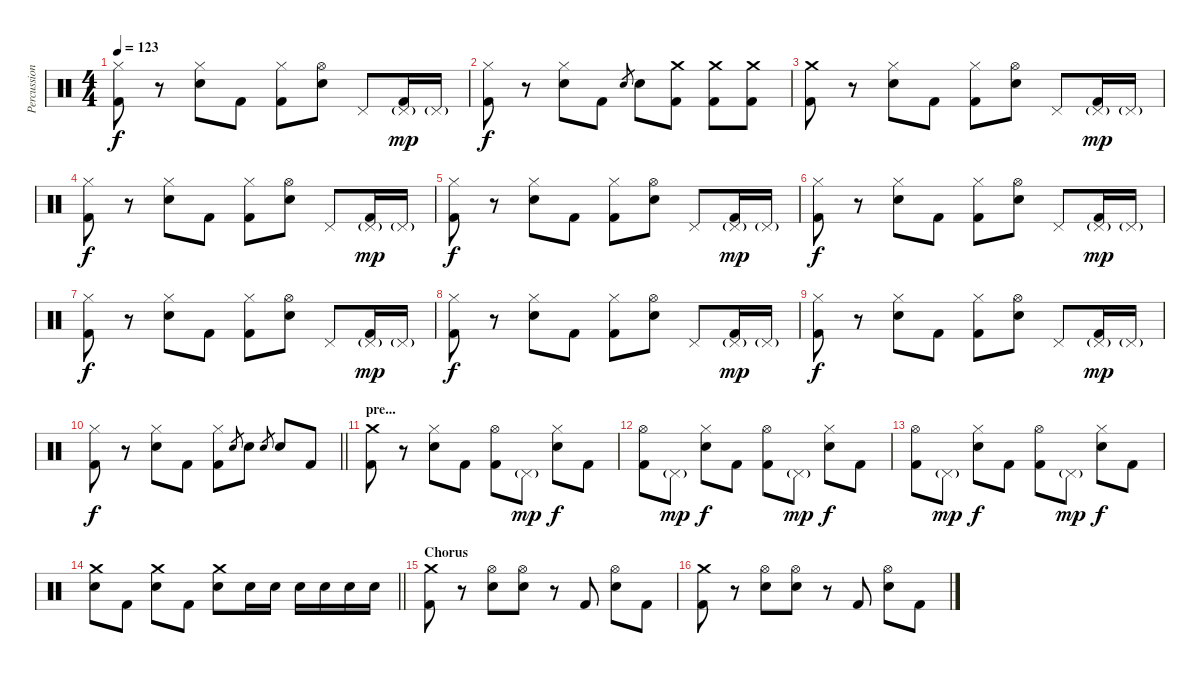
\track ("Percussion" "Percussion") {instrument percussion}
\staff {score}
\articulation defaults
\ts (4 4)
\tempo 123
\clef neutral
\ks c
("Hi-Hat (closed)" "Kick (hit) 2").8{dy f} r.8 ("Hi-Hat (closed)" "Electric Snare (hit)").8 "Kick (hit) 2".8 ("Hi-Hat (closed)" "Kick (hit) 2").8 ("Hi-Hat (open)" "Electric Snare (hit)").8 "Pedal Hi-Hat (hit)".8 ("Pedal Hi-Hat (hit)"{g} "Kick (hit) 2").16{dy mp} "Pedal Hi-Hat (hit)"{g}.16 |
("Hi-Hat (closed)" "Kick (hit) 2").8{dy f} r.8 ("Hi-Hat (closed)" "Electric Snare (hit)").8 "Kick (hit) 2".8 "Electric Snare (hit)".8{gr} "Electric Snare (hit)".8 ("Crash medium (hit)" "Kick (hit) 2").8 ("Crash medium (hit)" "Kick (hit) 2").8 ("Crash medium (hit)" "Kick (hit) 2").8 |
("Crash medium (hit)" "Kick (hit) 2").8 r.8 ("Hi-Hat (closed)" "Electric Snare (hit)").8 "Kick (hit) 2".8 ("Hi-Hat (closed)" "Kick (hit) 2").8 ("Hi-Hat (open)" "Electric Snare (hit)").8 "Pedal Hi-Hat (hit)".8 ("Pedal Hi-Hat (hit)"{g} "Kick (hit) 2").16{dy mp} "Pedal Hi-Hat (hit)"{g}.16 |
("Hi-Hat (closed)" "Kick (hit) 2").8{dy f} r.8 ("Hi-Hat (closed)" "Electric Snare (hit)").8 "Kick (hit) 2".8 ("Hi-Hat (closed)" "Kick (hit) 2").8 ("Hi-Hat (open)" "Electric Snare (hit)").8 "Pedal Hi-Hat (hit)".8 ("Pedal Hi-Hat (hit)"{g} "Kick (hit) 2").16{dy mp} "Pedal Hi-Hat (hit)"{g}.16 |
("Hi-Hat (closed)" "Kick (hit) 2").8{dy f} r.8 ("Hi-Hat (closed)" "Electric Snare (hit)").8 "Kick (hit) 2".8 ("Hi-Hat (closed)" "Kick (hit) 2").8 ("Hi-Hat (open)" "Electric Snare (hit)").8 "Pedal Hi-Hat (hit)".8 ("Pedal Hi-Hat (hit)"{g} "Kick (hit) 2").16{dy mp} "Pedal Hi-Hat (hit)"{g}.16 |
("Hi-Hat (closed)" "Kick (hit) 2").8{dy f} r.8 ("Hi-Hat (closed)" "Electric Snare (hit)").8 "Kick (hit) 2".8 ("Hi-Hat (closed)" "Kick (hit) 2").8 ("Hi-Hat (open)" "Electric Snare (hit)").8 "Pedal Hi-Hat (hit)".8 ("Pedal Hi-Hat (hit)"{g} "Kick (hit) 2").16{dy mp} "Pedal Hi-Hat (hit)"{g}.16 |
("Hi-Hat (closed)" "Kick (hit) 2").8{dy f} r.8 ("Hi-Hat (closed)" "Electric Snare (hit)").8 "Kick (hit) 2".8 ("Hi-Hat (closed)" "Kick (hit) 2").8 ("Hi-Hat (open)" "Electric Snare (hit)").8 "Pedal Hi-Hat (hit)".8 ("Pedal Hi-Hat (hit)"{g} "Kick (hit) 2").16{dy mp} "Pedal Hi-Hat (hit)"{g}.16 |
("Hi-Hat (closed)" "Kick (hit) 2").8{dy f} r.8 ("Hi-Hat (closed)" "Electric Snare (hit)").8 "Kick (hit) 2".8 ("Hi-Hat (closed)" "Kick (hit) 2").8 ("Hi-Hat (open)" "Electric Snare (hit)").8 "Pedal Hi-Hat (hit)".8 ("Pedal Hi-Hat (hit)"{g} "Kick (hit) 2").16{dy mp} "Pedal Hi-Hat (hit)"{g}.16 |
("Hi-Hat (closed)" "Kick (hit) 2").8{dy f} r.8 ("Hi-Hat (closed)" "Electric Snare (hit)").8 "Kick (hit) 2".8 ("Hi-Hat (closed)" "Kick (hit) 2").8 ("Hi-Hat (open)" "Electric Snare (hit)").8 "Pedal Hi-Hat (hit)".8 ("Pedal Hi-Hat (hit)"{g} "Kick (hit) 2").16{dy mp} "Pedal Hi-Hat (hit)"{g}.16 |
\barLineRight lightlight
("Hi-Hat (closed)" "Kick (hit) 2").8{dy f} r.8 ("Hi-Hat (closed)" "Electric Snare (hit)").8 "Kick (hit) 2".8 ("Hi-Hat (closed)" "Kick (hit) 2").8 "Electric Snare (hit)".8{gr} "Electric Snare (hit)".8 "Electric Snare (hit)".8{gr} "Electric Snare (hit)".8 "Kick (hit) 2".8 |
\section ("" "pre...")
("Crash medium (hit)" "Kick (hit) 2").8 r.8 ("Hi-Hat (closed)" "Electric Snare (hit)").8 "Kick (hit) 2".8 ("Hi-Hat (open)" "Kick (hit) 2").8 "Pedal Hi-Hat (hit)"{g}.8{dy mp} ("Hi-Hat (closed)" "Electric Snare (hit)").8{dy f} "Kick (hit) 2".8 |
("Hi-Hat (open)" "Kick (hit) 2").8 "Pedal Hi-Hat (hit)"{g}.8{dy mp} ("Hi-Hat (closed)" "Electric Snare (hit)").8{dy f} "Kick (hit) 2".8 ("Hi-Hat (open)" "Kick (hit) 2").8 "Pedal Hi-Hat (hit)"{g}.8{dy mp} ("Hi-Hat (closed)" "Electric Snare (hit)").8{dy f} "Kick (hit) 2".8 |
("Hi-Hat (open)" "Kick (hit) 2").8 "Pedal Hi-Hat (hit)"{g}.8{dy mp} ("Hi-Hat (closed)" "Electric Snare (hit)").8{dy f} "Kick (hit) 2".8 ("Hi-Hat (open)" "Kick (hit) 2").8 "Pedal Hi-Hat (hit)"{g}.8{dy mp} ("Hi-Hat (closed)" "Electric Snare (hit)").8{dy f} "Kick (hit) 2".8 |
\barLineRight lightlight
("Crash medium (hit)" "Electric Snare (hit)").8 "Kick (hit) 2".8 ("Crash medium (hit)" "Electric Snare (hit)").8 "Kick (hit) 2".8 ("Crash medium (hit)" "Electric Snare (hit)").8 "Electric Snare (hit)".16 "Electric Snare (hit)".16 "Electric Snare (hit)".16 "Electric Snare (hit)".16 "Electric Snare (hit)".16 "Electric Snare (hit)".16 |
\section ("" "Chorus")
("Crash medium (hit)" "Kick (hit) 2").8 r.8 ("Hi-Hat (open)" "Electric Snare (hit)").8 ("Hi-Hat (open)" "Electric Snare (hit)").8 r.8 "Kick (hit) 2".8 ("Hi-Hat (open)" "Electric Snare (hit)").8 "Kick (hit) 2".8 |
("Crash medium (hit)" "Kick (hit) 2").8 r.8 ("Hi-Hat (open)" "Electric Snare (hit)").8 ("Hi-Hat (open)" "Electric Snare (hit)").8 r.8 "Kick (hit) 2".8 ("Hi-Hat (open)" "Electric Snare (hit)").8 "Kick (hit) 2".8
